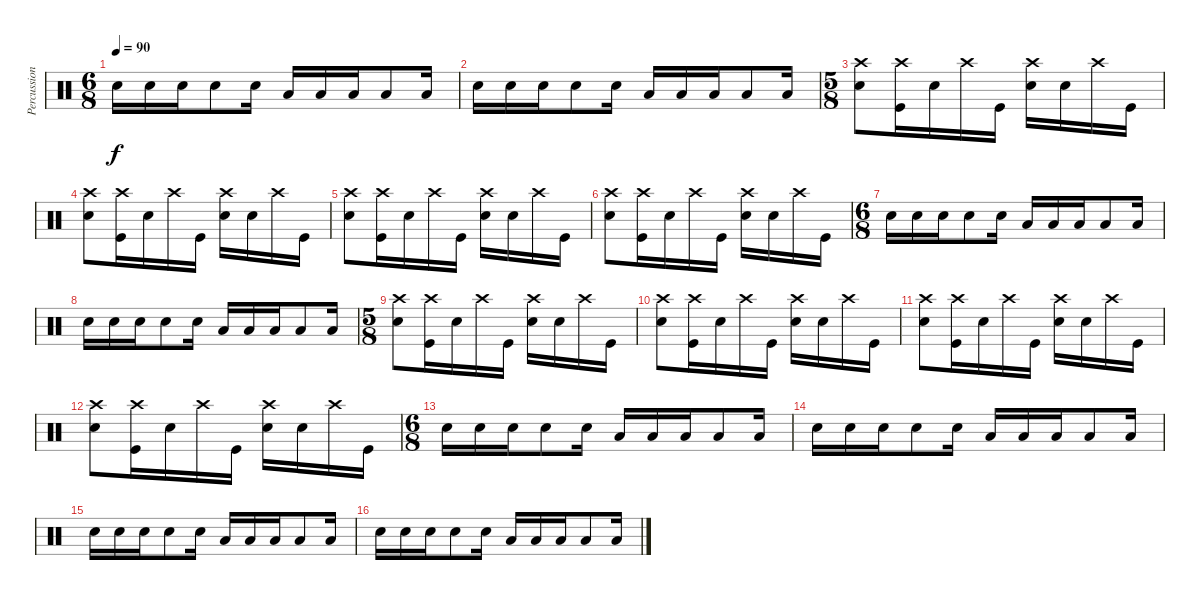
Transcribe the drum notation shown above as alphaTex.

\track ("Percussions" "Percussion") {instrument percussion}
\staff {score}
\articulation defaults
\ts (6 8)
\tempo 90
\clef neutral
\ks c "Snare (hit) 2".16{dy f} "Snare (hit) 2".16 "Snare (hit) 2".16 "Snare (hit) 2".8 "Snare (hit) 2".16 "Low Tom (hit)".16 "Low Tom (hit)".16 "Low Tom (hit)".16 "Low Tom (hit)".8 "Low Tom (hit)".16
|
"Snare (hit) 2".16 "Snare (hit) 2".16 "Snare (hit) 2".16 "Snare (hit) 2".8 "Snare (hit) 2".16 "Low Tom (hit)".16 "Low Tom (hit)".16 "Low Tom (hit)".16 "Low Tom (hit)".8 "Low Tom (hit)".16 |
\ts (5 8)
("Crash high (hit)" "Snare (hit) 2").8 ("Crash high (hit)" "Kick (hit)").16 "Snare (hit) 2".16 "Crash high (hit)".16 "Kick (hit)".16 ("Crash high (hit)" "Snare (hit) 2").16 "Snare (hit) 2".16 "Crash high (hit)".16 "Kick (hit)".16 |
("Crash high (hit)" "Snare (hit) 2").8 ("Crash high (hit)" "Kick (hit)").16 "Snare (hit) 2".16 "Crash high (hit)".16 "Kick (hit)".16 ("Crash high (hit)" "Snare (hit) 2").16 "Snare (hit) 2".16 "Crash high (hit)".16 "Kick (hit)".16 |
("Crash high (hit)" "Snare (hit) 2").8 ("Crash high (hit)" "Kick (hit)").16 "Snare (hit) 2".16 "Crash high (hit)".16 "Kick (hit)".16 ("Crash high (hit)" "Snare (hit) 2").16 "Snare (hit) 2".16 "Crash high (hit)".16 "Kick (hit)".16 |
("Crash high (hit)" "Snare (hit) 2").8 ("Crash high (hit)" "Kick (hit)").16 "Snare (hit) 2".16 "Crash high (hit)".16 "Kick (hit)".16 ("Crash high (hit)" "Snare (hit) 2").16 "Snare (hit) 2".16 "Crash high (hit)".16 "Kick (hit)".16 |
\ts (6 8)
"Snare (hit) 2".16 "Snare (hit) 2".16 "Snare (hit) 2".16 "Snare (hit) 2".8 "Snare (hit) 2".16 "Low Tom (hit)".16 "Low Tom (hit)".16 "Low Tom (hit)".16 "Low Tom (hit)".8 "Low Tom (hit)".16 |
"Snare (hit) 2".16 "Snare (hit) 2".16 "Snare (hit) 2".16 "Snare (hit) 2".8 "Snare (hit) 2".16 "Low Tom (hit)".16 "Low Tom (hit)".16 "Low Tom (hit)".16 "Low Tom (hit)".8 "Low Tom (hit)".16 |
\ts (5 8)
("Crash high (hit)" "Snare (hit) 2").8 ("Crash high (hit)" "Kick (hit)").16 "Snare (hit) 2".16 "Crash high (hit)".16 "Kick (hit)".16 ("Crash high (hit)" "Snare (hit) 2").16 "Snare (hit) 2".16 "Crash high (hit)".16 "Kick (hit)".16 |
("Crash high (hit)" "Snare (hit) 2").8 ("Crash high (hit)" "Kick (hit)").16 "Snare (hit) 2".16 "Crash high (hit)".16 "Kick (hit)".16 ("Crash high (hit)" "Snare (hit) 2").16 "Snare (hit) 2".16 "Crash high (hit)".16 "Kick (hit)".16 |
("Crash high (hit)" "Snare (hit) 2").8 ("Crash high (hit)" "Kick (hit)").16 "Snare (hit) 2".16 "Crash high (hit)".16 "Kick (hit)".16 ("Crash high (hit)" "Snare (hit) 2").16 "Snare (hit) 2".16 "Crash high (hit)".16 "Kick (hit)".16 |
("Crash high (hit)" "Snare (hit) 2").8 ("Crash high (hit)" "Kick (hit)").16 "Snare (hit) 2".16 "Crash high (hit)".16 "Kick (hit)".16 ("Crash high (hit)" "Snare (hit) 2").16 "Snare (hit) 2".16 "Crash high (hit)".16 "Kick (hit)".16 |
\ts (6 8)
"Snare (hit) 2".16 "Snare (hit) 2".16 "Snare (hit) 2".16 "Snare (hit) 2".8 "Snare (hit) 2".16 "Low Tom (hit)".16 "Low Tom (hit)".16 "Low Tom (hit)".16 "Low Tom (hit)".8 "Low Tom (hit)".16 |
"Snare (hit) 2".16 "Snare (hit) 2".16 "Snare (hit) 2".16 "Snare (hit) 2".8 "Snare (hit) 2".16 "Low Tom (hit)".16 "Low Tom (hit)".16 "Low Tom (hit)".16 "Low Tom (hit)".8 "Low Tom (hit)".16 |
"Snare (hit) 2".16 "Snare (hit) 2".16 "Snare (hit) 2".16 "Snare (hit) 2".8 "Snare (hit) 2".16 "Low Tom (hit)".16 "Low Tom (hit)".16 "Low Tom (hit)".16 "Low Tom (hit)".8 "Low Tom (hit)".16 |
"Snare (hit) 2".16 "Snare (hit) 2".16 "Snare (hit) 2".16 "Snare (hit) 2".8 "Snare (hit) 2".16 "Low Tom (hit)".16 "Low Tom (hit)".16 "Low Tom (hit)".16 "Low Tom (hit)".8 "Low Tom (hit)".16
